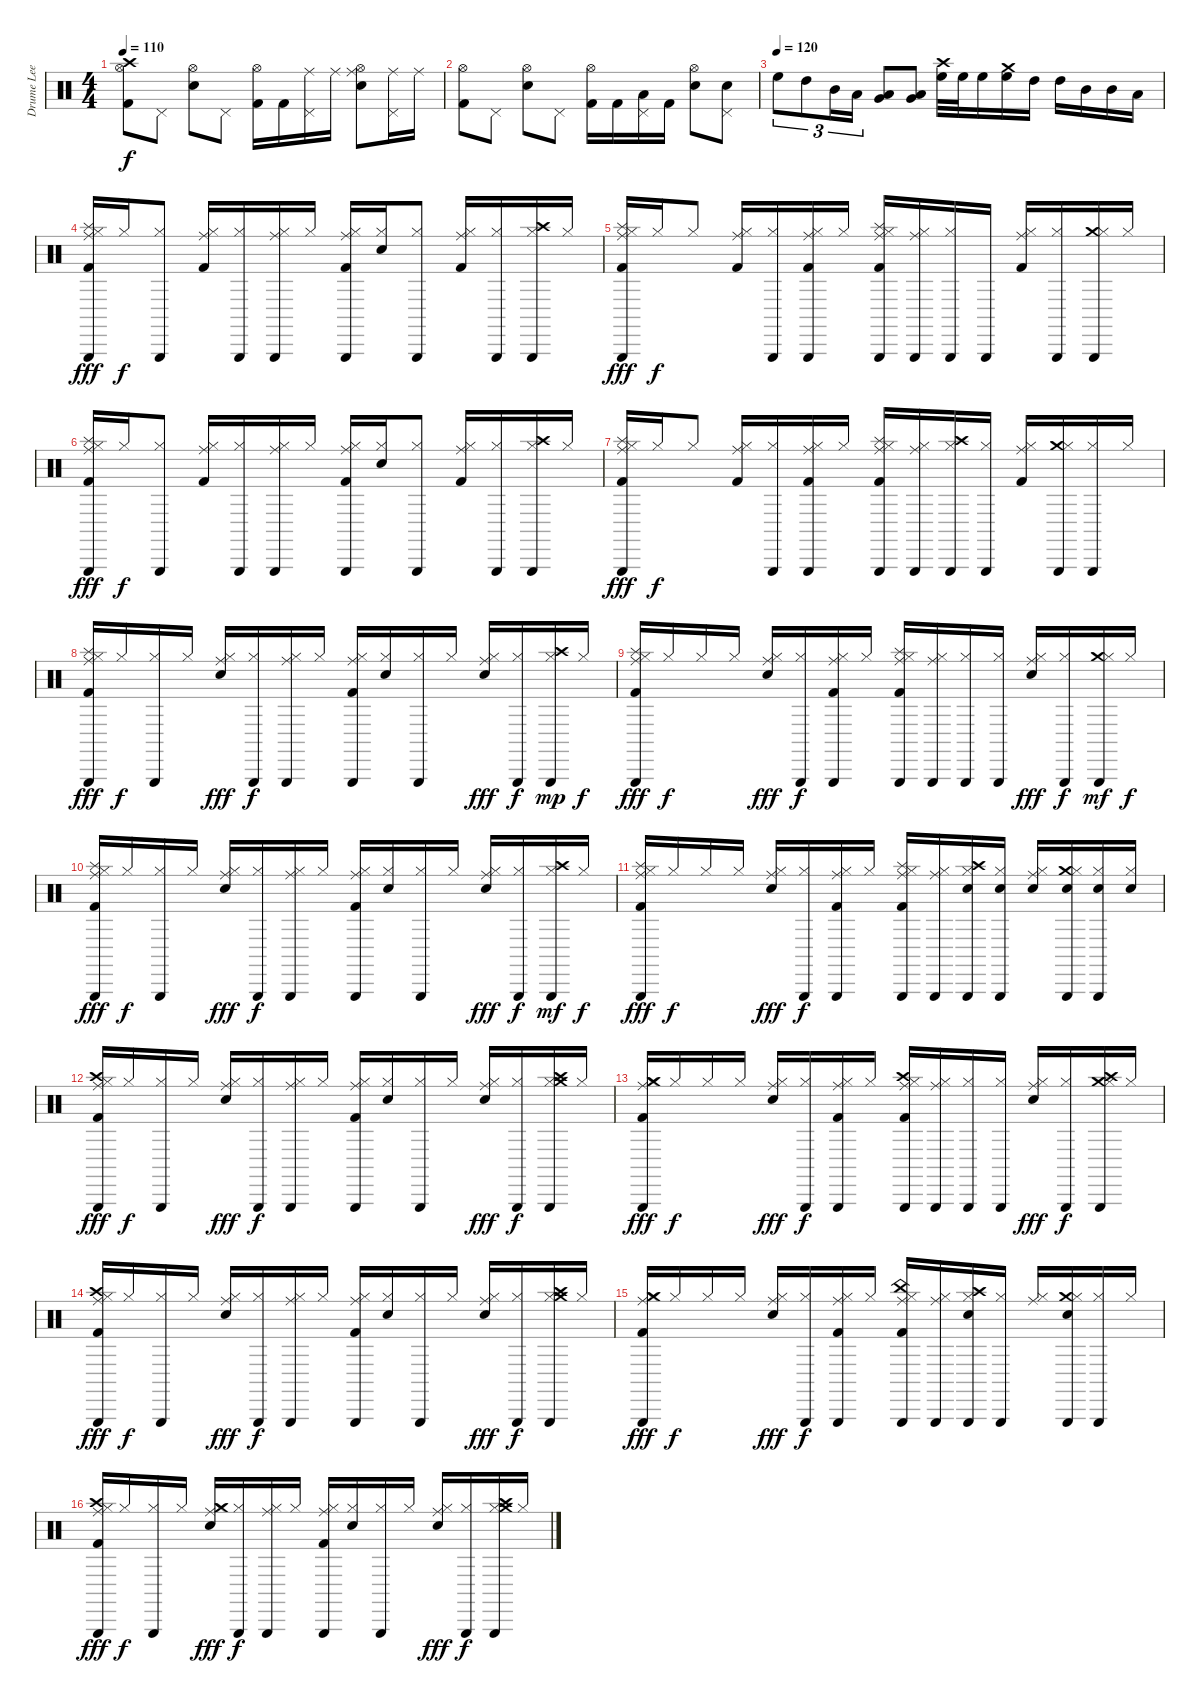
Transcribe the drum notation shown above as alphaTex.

\track ("Drume Lee Jhones" "Drume Lee ") {instrument percussion}
\staff {score}
\articulation defaults
\ts (4 4)
\tempo 110
\clef neutral
\ks c
("Crash high (hit)" "Hi-Hat (open)" "Kick (hit) 2").8{dy f} "Pedal Hi-Hat (hit)".8 ("Hi-Hat (open)" "Snare (hit) 2").8 "Pedal Hi-Hat (hit)".8 ("Hi-Hat (open)" "Kick (hit) 2").16 "Kick (hit) 2".16 ("Ride (middle)" "Pedal Hi-Hat (hit)").16 "Ride (middle)".16 ("Ride (middle)" "Hi-Hat (open)" "Snare (hit) 2").8 ("Ride (middle)" "Pedal Hi-Hat (hit)").16 "Ride (middle)".16 |
("Hi-Hat (open)" "Kick (hit) 2").8 "Pedal Hi-Hat (hit)".8 ("Hi-Hat (open)" "Snare (hit) 2").8 "Pedal Hi-Hat (hit)".8 ("Hi-Hat (open)" "Kick (hit) 2").16 "Kick (hit) 2".16 ("Pedal Hi-Hat (hit)" "Low Tom (hit)").16 "Kick (hit) 2".16 ("Hi-Hat (open)" "Snare (hit) 2").8 ("Pedal Hi-Hat (hit)" "Snare (hit) 2").8 |
\tempo (120)
"High Floor Tom (hit)".8{tu (3 2)} "High Tom (hit)".8{tu (3 2)} "Mid Tom (hit)".16{tu (3 2)} "Low Tom (hit)".16{tu (3 2)} ("Low Tom (hit)" "Very Low Tom (hit)").8 ("Low Tom (hit)" "Very Low Tom (hit)").8 ("Crash high (hit)" "High Floor Tom (hit)").32 "High Floor Tom (hit)".32 "High Floor Tom (hit)".16 ("Crash medium (hit)" "High Floor Tom (hit)").16 "High Tom (hit)".16 "High Tom (hit)".16 "Mid Tom (hit)".16 "Mid Tom (hit)".16 "Low Tom (hit)".16 |
("Splash (hit)" "Hi-Hat (closed)" "Ride (middle)" "Triangle (hit)" "Kick (hit) 2").16{dy fff} "Hi-Hat (closed)".16{dy f} ("Hi-Hat (closed)" "Triangle (hit)").8 ("Hi-Hat (closed)" "Ride (middle)" "Kick (hit) 2").16 ("Hi-Hat (closed)" "Triangle (hit)").16 ("Hi-Hat (closed)" "Ride (middle)" "Triangle (hit)").16 "Hi-Hat (closed)".16 ("Hi-Hat (closed)" "Ride (middle)" "Triangle (hit)" "Kick (hit) 2").16 ("Hi-Hat (closed)" "Snare (hit)").16 ("Hi-Hat (closed)" "Triangle (hit)").8 ("Hi-Hat (closed)" "Ride (middle)" "Kick (hit) 2").16 ("Hi-Hat (closed)" "Triangle (hit)").16 ("Crash high (hit)" "Hi-Hat (closed)" "Triangle (hit)").16 "Hi-Hat (closed)".16 |
("Splash (hit)" "Hi-Hat (closed)" "Ride (middle)" "Triangle (hit)" "Kick (hit) 2").16{dy fff} "Hi-Hat (closed)".16{dy f} "Hi-Hat (closed)".8 ("Hi-Hat (closed)" "Ride (middle)" "Kick (hit) 2").16 ("Hi-Hat (closed)" "Triangle (hit)").16 ("Hi-Hat (closed)" "Ride (middle)" "Triangle (hit)" "Kick (hit) 2").16 "Hi-Hat (closed)".16 ("Splash (hit)" "Hi-Hat (closed)" "Ride (middle)" "Triangle (hit)" "Kick (hit) 2").16 ("Hi-Hat (closed)" "Ride (middle)" "Triangle (hit)").16 ("Hi-Hat (closed)" "Triangle (hit)").16 "Triangle (hit)".16 ("Hi-Hat (closed)" "Ride (middle)" "Kick (hit) 2").16 ("Hi-Hat (closed)" "Triangle (hit)").16 ("Crash medium (hit)" "Hi-Hat (closed)" "Triangle (hit)").16 "Hi-Hat (closed)".16 |
("Splash (hit)" "Hi-Hat (closed)" "Ride (middle)" "Triangle (hit)" "Kick (hit) 2").16{dy fff} "Hi-Hat (closed)".16{dy f} ("Hi-Hat (closed)" "Triangle (hit)").8 ("Hi-Hat (closed)" "Ride (middle)" "Kick (hit) 2").16 ("Hi-Hat (closed)" "Triangle (hit)").16 ("Hi-Hat (closed)" "Ride (middle)" "Triangle (hit)").16 "Hi-Hat (closed)".16 ("Hi-Hat (closed)" "Ride (middle)" "Triangle (hit)" "Kick (hit) 2").16 ("Hi-Hat (closed)" "Snare (hit)").16 ("Hi-Hat (closed)" "Triangle (hit)").8 ("Hi-Hat (closed)" "Ride (middle)" "Kick (hit) 2").16 ("Hi-Hat (closed)" "Triangle (hit)").16 ("Crash high (hit)" "Hi-Hat (closed)" "Triangle (hit)").16 "Hi-Hat (closed)".16 |
("Splash (hit)" "Hi-Hat (closed)" "Ride (middle)" "Triangle (hit)" "Kick (hit) 2").16{dy fff} "Hi-Hat (closed)".16{dy f} "Hi-Hat (closed)".8 ("Hi-Hat (closed)" "Ride (middle)" "Kick (hit) 2").16 ("Hi-Hat (closed)" "Triangle (hit)").16 ("Hi-Hat (closed)" "Ride (middle)" "Triangle (hit)" "Kick (hit) 2").16 "Hi-Hat (closed)".16 ("Splash (hit)" "Hi-Hat (closed)" "Ride (middle)" "Triangle (hit)" "Kick (hit) 2").16 ("Hi-Hat (closed)" "Ride (middle)" "Triangle (hit)").16 ("Crash high (hit)" "Hi-Hat (closed)" "Triangle (hit)").16 ("Hi-Hat (closed)" "Triangle (hit)").16 ("Hi-Hat (closed)" "Ride (middle)" "Kick (hit) 2").16 ("Crash medium (hit)" "Hi-Hat (closed)" "Triangle (hit)").16 ("Hi-Hat (closed)" "Triangle (hit)").16 "Hi-Hat (closed)".16 |
("Splash (hit)" "Hi-Hat (closed)" "Ride (middle)" "Triangle (hit)" "Kick (hit) 2").16{dy fff} "Hi-Hat (closed)".16{dy f} ("Hi-Hat (closed)" "Triangle (hit)").16 "Hi-Hat (closed)".16 ("Hi-Hat (closed)" "Ride (middle)" "Snare (hit) 2").16{dy fff} ("Hi-Hat (closed)" "Triangle (hit)").16{dy f} ("Hi-Hat (closed)" "Ride (middle)" "Triangle (hit)").16 "Hi-Hat (closed)".16 ("Hi-Hat (closed)" "Ride (middle)" "Triangle (hit)" "Kick (hit) 2").16 ("Hi-Hat (closed)" "Snare (hit)").16 ("Hi-Hat (closed)" "Triangle (hit)").16 "Hi-Hat (closed)".16 ("Hi-Hat (closed)" "Ride (middle)" "Snare (hit) 2").16{dy fff} ("Hi-Hat (closed)" "Triangle (hit)").16{dy f} ("Crash high (hit)" "Hi-Hat (closed)" "Triangle (hit)").16{dy mp} "Hi-Hat (closed)".16{dy f} |
("Splash (hit)" "Hi-Hat (closed)" "Ride (middle)" "Triangle (hit)" "Kick (hit) 2").16{dy fff} "Hi-Hat (closed)".16{dy f} "Hi-Hat (closed)".16 "Hi-Hat (closed)".16 ("Hi-Hat (closed)" "Ride (middle)" "Snare (hit) 2").16{dy fff} ("Hi-Hat (closed)" "Triangle (hit)").16{dy f} ("Hi-Hat (closed)" "Ride (middle)" "Triangle (hit)" "Kick (hit) 2").16 "Hi-Hat (closed)".16 ("Splash (hit)" "Hi-Hat (closed)" "Ride (middle)" "Triangle (hit)" "Kick (hit) 2").16 ("Hi-Hat (closed)" "Ride (middle)" "Triangle (hit)").16 ("Hi-Hat (closed)" "Triangle (hit)").16 ("Hi-Hat (closed)" "Triangle (hit)").16 ("Hi-Hat (closed)" "Ride (middle)" "Snare (hit) 2").16{dy fff} ("Hi-Hat (closed)" "Triangle (hit)").16{dy f} ("Crash medium (hit)" "Hi-Hat (closed)" "Triangle (hit)").16{dy mf} "Hi-Hat (closed)".16{dy f} |
("Splash (hit)" "Hi-Hat (closed)" "Ride (middle)" "Triangle (hit)" "Kick (hit) 2").16{dy fff} "Hi-Hat (closed)".16{dy f} ("Hi-Hat (closed)" "Triangle (hit)").16 "Hi-Hat (closed)".16 ("Hi-Hat (closed)" "Ride (middle)" "Snare (hit) 2").16{dy fff} ("Hi-Hat (closed)" "Triangle (hit)").16{dy f} ("Hi-Hat (closed)" "Ride (middle)" "Triangle (hit)").16 "Hi-Hat (closed)".16 ("Hi-Hat (closed)" "Ride (middle)" "Triangle (hit)" "Kick (hit) 2").16 ("Hi-Hat (closed)" "Snare (hit)").16 ("Hi-Hat (closed)" "Triangle (hit)").16 "Hi-Hat (closed)".16 ("Hi-Hat (closed)" "Ride (middle)" "Snare (hit) 2").16{dy fff} ("Hi-Hat (closed)" "Triangle (hit)").16{dy f} ("Crash high (hit)" "Hi-Hat (closed)" "Triangle (hit)").16{dy mf} "Hi-Hat (closed)".16{dy f} |
("Splash (hit)" "Hi-Hat (closed)" "Ride (middle)" "Triangle (hit)" "Kick (hit) 2").16{dy fff} "Hi-Hat (closed)".16{dy f} "Hi-Hat (closed)".16 "Hi-Hat (closed)".16 ("Hi-Hat (closed)" "Ride (middle)" "Snare (hit) 2").16{dy fff} ("Hi-Hat (closed)" "Triangle (hit)").16{dy f} ("Hi-Hat (closed)" "Ride (middle)" "Triangle (hit)" "Kick (hit) 2").16 "Hi-Hat (closed)".16 ("Splash (hit)" "Hi-Hat (closed)" "Ride (middle)" "Triangle (hit)" "Kick (hit) 2").16 ("Hi-Hat (closed)" "Ride (middle)" "Triangle (hit)").16 ("Crash high (hit)" "Hi-Hat (closed)" "Triangle (hit)" "Snare (hit) 2").16 ("Hi-Hat (closed)" "Triangle (hit)" "Snare (hit) 2").16 ("Hi-Hat (closed)" "Ride (middle)" "Snare (hit) 2").16 ("Crash medium (hit)" "Hi-Hat (closed)" "Triangle (hit)" "Snare (hit) 2").16 ("Hi-Hat (closed)" "Triangle (hit)" "Snare (hit) 2").16 ("Hi-Hat (closed)" "Snare (hit) 2").16 |
("Crash high (hit)" "Hi-Hat (closed)" "Ride (middle)" "Triangle (hit)" "Kick (hit) 2").16{dy fff} "Hi-Hat (closed)".16{dy f} ("Hi-Hat (closed)" "Triangle (hit)").16 "Hi-Hat (closed)".16 ("Hi-Hat (closed)" "Ride (middle)" "Snare (hit) 2").16{dy fff} ("Hi-Hat (closed)" "Triangle (hit)").16{dy f} ("Hi-Hat (closed)" "Ride (middle)" "Triangle (hit)").16 "Hi-Hat (closed)".16 ("Hi-Hat (closed)" "Ride (middle)" "Triangle (hit)" "Kick (hit) 2").16 ("Hi-Hat (closed)" "Snare (hit)").16 ("Hi-Hat (closed)" "Triangle (hit)").16 "Hi-Hat (closed)".16 ("Hi-Hat (closed)" "Ride (middle)" "Snare (hit) 2").16{dy fff} ("Hi-Hat (closed)" "Triangle (hit)").16{dy f} ("Crash high (hit)" "Hi-Hat (closed)" "Crash medium (hit)" "Triangle (hit)").16 "Hi-Hat (closed)".16 |
("Crash medium (hit)" "Hi-Hat (closed)" "Ride (middle)" "Triangle (hit)" "Kick (hit) 2").16{dy fff} "Hi-Hat (closed)".16{dy f} "Hi-Hat (closed)".16 "Hi-Hat (closed)".16 ("Hi-Hat (closed)" "Ride (middle)" "Snare (hit) 2").16{dy fff} ("Hi-Hat (closed)" "Triangle (hit)").16{dy f} ("Hi-Hat (closed)" "Ride (middle)" "Triangle (hit)" "Kick (hit) 2").16 "Hi-Hat (closed)".16 ("Crash high (hit)" "Hi-Hat (closed)" "Ride (middle)" "Triangle (hit)" "Kick (hit) 2").16 ("Hi-Hat (closed)" "Ride (middle)" "Triangle (hit)").16 ("Hi-Hat (closed)" "Triangle (hit)").16 ("Hi-Hat (closed)" "Triangle (hit)").16 ("Hi-Hat (closed)" "Ride (middle)" "Snare (hit) 2").16{dy fff} ("Hi-Hat (closed)" "Triangle (hit)").16{dy f} ("Crash medium (hit)" "Hi-Hat (closed)" "Crash high (hit)" "Triangle (hit)").16 "Hi-Hat (closed)".16 |
("Crash high (hit)" "Hi-Hat (closed)" "Ride (middle)" "Triangle (hit)" "Kick (hit) 2").16{dy fff} "Hi-Hat (closed)".16{dy f} ("Hi-Hat (closed)" "Triangle (hit)").16 "Hi-Hat (closed)".16 ("Hi-Hat (closed)" "Ride (middle)" "Snare (hit) 2").16{dy fff} ("Hi-Hat (closed)" "Triangle (hit)").16{dy f} ("Hi-Hat (closed)" "Ride (middle)" "Triangle (hit)").16 "Hi-Hat (closed)".16 ("Hi-Hat (closed)" "Ride (middle)" "Triangle (hit)" "Kick (hit) 2").16 ("Hi-Hat (closed)" "Snare (hit)").16 ("Hi-Hat (closed)" "Triangle (hit)").16 "Hi-Hat (closed)".16 ("Hi-Hat (closed)" "Ride (middle)" "Snare (hit) 2").16{dy fff} ("Hi-Hat (closed)" "Triangle (hit)").16{dy f} ("Crash high (hit)" "Hi-Hat (closed)" "Crash medium (hit)" "Triangle (hit)").16 "Hi-Hat (closed)".16 |
("Crash medium (hit)" "Hi-Hat (closed)" "Ride (middle)" "Triangle (hit)" "Kick (hit) 2").16{dy fff} "Hi-Hat (closed)".16{dy f} "Hi-Hat (closed)".16 "Hi-Hat (closed)".16 ("Hi-Hat (closed)" "Ride (middle)" "Snare (hit) 2").16{dy fff} ("Hi-Hat (closed)" "Triangle (hit)").16{dy f} ("Hi-Hat (closed)" "Ride (middle)" "Triangle (hit)" "Kick (hit) 2").16 "Hi-Hat (closed)".16 ("China (hit)" "Hi-Hat (closed)" "Ride (middle)" "Triangle (hit)" "Kick (hit) 2").16 ("Hi-Hat (closed)" "Ride (middle)" "Triangle (hit)").16 ("Crash high (hit)" "Hi-Hat (closed)" "Triangle (hit)" "Snare (hit) 2").16 ("Hi-Hat (closed)" "Triangle (hit)").16 ("Hi-Hat (closed)" "Ride (middle)").16 ("Crash medium (hit)" "Hi-Hat (closed)" "Triangle (hit)" "Snare (hit) 2").16 ("Hi-Hat (closed)" "Triangle (hit)").16 "Hi-Hat (closed)".16 |
("Crash high (hit)" "Hi-Hat (closed)" "Ride (middle)" "Triangle (hit)" "Kick (hit) 2").16{dy fff} "Hi-Hat (closed)".16{dy f} ("Hi-Hat (closed)" "Triangle (hit)").16 "Hi-Hat (closed)".16 ("Crash medium (hit)" "Hi-Hat (closed)" "Ride (middle)" "Snare (hit) 2").16{dy fff} ("Hi-Hat (closed)" "Triangle (hit)").16{dy f} ("Hi-Hat (closed)" "Ride (middle)" "Triangle (hit)").16 "Hi-Hat (closed)".16 ("Hi-Hat (closed)" "Ride (middle)" "Triangle (hit)" "Kick (hit) 2").16 ("Hi-Hat (closed)" "Snare (hit)").16 ("Hi-Hat (closed)" "Triangle (hit)").16 "Hi-Hat (closed)".16 ("Hi-Hat (closed)" "Ride (middle)" "Snare (hit) 2").16{dy fff} ("Hi-Hat (closed)" "Triangle (hit)").16{dy f} ("Crash high (hit)" "Hi-Hat (closed)" "Crash medium (hit)" "Triangle (hit)").16 "Hi-Hat (closed)".16
